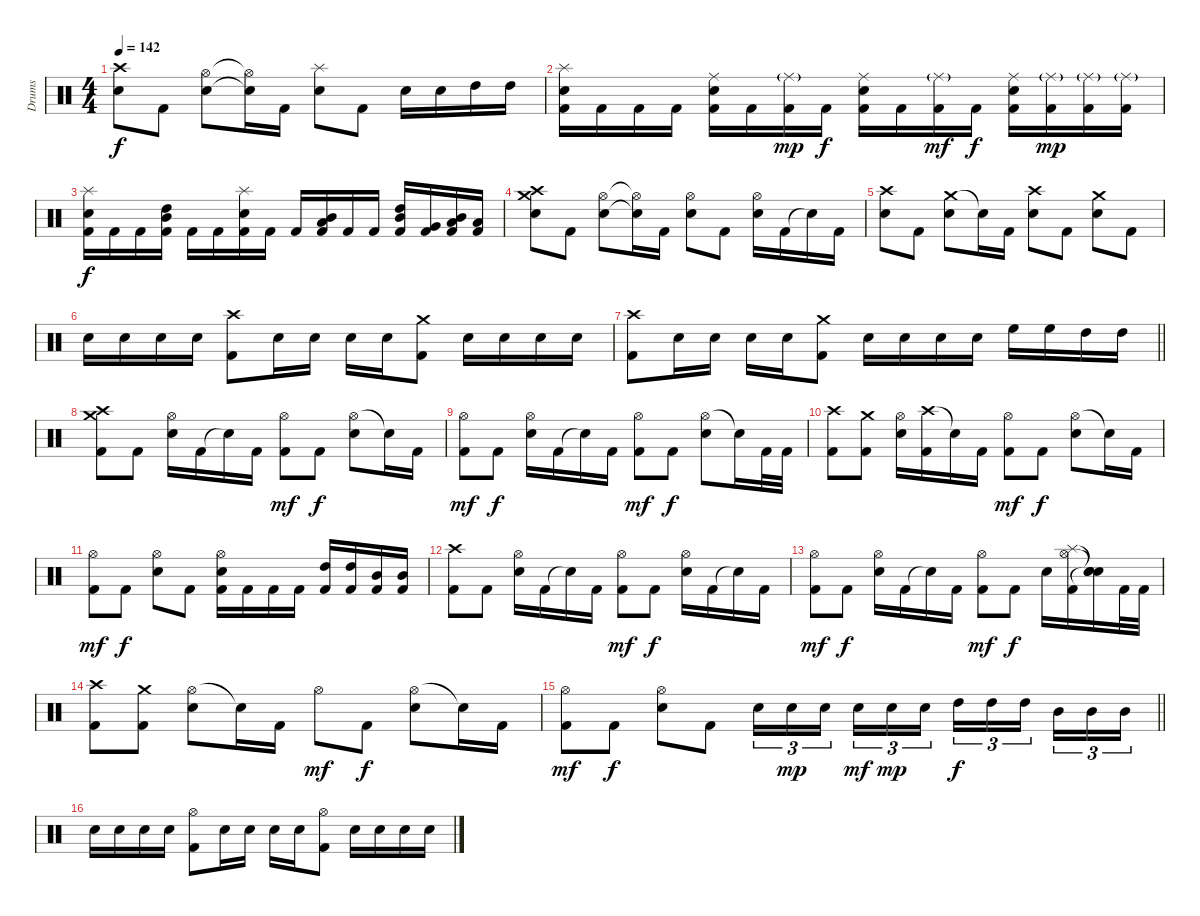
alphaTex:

\track ("Drums" "Drums") {instrument percussion}
\staff {score}
\articulation defaults
\ts (4 4)
\tempo 142
\clef neutral
\ks c
("Crash high (hit)" "Electric Snare (hit)").8{dy f} "Kick (hit) 2".8 ("Hi-Hat (open)" "Electric Snare (hit)").8 ("Hi-Hat (open)"{t} "Snare (hit)"{t}).16 "Kick (hit) 2".16 ("Splash (hit)" "Electric Snare (hit)").8 "Kick (hit) 2".8 "Electric Snare (hit)".16 "Electric Snare (hit)".16 "High Tom (hit)".16 "High Tom (hit)".16 |
("Splash (hit)" "Electric Snare (hit)" "Kick (hit) 2").16 "Kick (hit) 2".16 "Kick (hit) 2".16 "Kick (hit) 2".16 ("Ride (middle)" "Electric Snare (hit)" "Kick (hit) 2").16 "Kick (hit) 2".16 ("Ride (middle)"{g} "Kick (hit) 2").16{dy mp} "Kick (hit) 2".16{dy f} ("Ride (middle)" "Electric Snare (hit)" "Kick (hit) 2").16 "Kick (hit) 2".16 ("Ride (middle)"{g} "Kick (hit) 2").16{dy mf} "Kick (hit) 2".16{dy f} ("Ride (middle)" "Electric Snare (hit)" "Kick (hit) 2").16 ("Ride (middle)"{g} "Kick (hit) 2").16{dy mp} ("Ride (middle)"{g} "Kick (hit) 2").16 ("Ride (middle)"{g} "Kick (hit) 2").16 |
("Splash (hit)" "Electric Snare (hit)" "Kick (hit) 2").16{dy f} "Kick (hit) 2".16 "Kick (hit) 2".16 ("High Tom (hit)" "Mid Tom (hit)" "Kick (hit) 2").16 "Kick (hit) 2".16 "Kick (hit) 2".16 ("Splash (hit)" "Electric Snare (hit)" "Kick (hit) 2").16 "Kick (hit) 2".16 "Kick (hit) 2".16 ("Mid Tom (hit)" "Low Tom (hit)" "Kick (hit) 2").16 "Kick (hit) 2".16 "Kick (hit) 2".16 ("High Tom (hit)" "Mid Tom (hit)" "Kick (hit) 2").16 ("Very Low Tom (hit)" "Kick (hit) 2").16 ("Mid Tom (hit)" "Low Tom (hit)" "Kick (hit) 2").16 ("Low Floor Tom (hit)" "Kick (hit) 2").16 |
("Crash high (hit)" "Crash medium (hit)" "Electric Snare (hit)").8 "Kick (hit) 2".8 ("Hi-Hat (open)" "Electric Snare (hit)").8 ("Hi-Hat (open)"{t} "Snare (hit)"{t}).16 "Kick (hit) 2".16 ("Hi-Hat (open)" "Electric Snare (hit)").8 "Kick (hit) 2".8 ("Hi-Hat (open)" "Electric Snare (hit)").16 "Kick (hit) 2".16 "Snare (hit)"{t}.16 "Kick (hit) 2".16 |
("Crash high (hit)" "Electric Snare (hit)").8 "Kick (hit) 2".8 ("Crash medium (hit)" "Electric Snare (hit)").8 "Snare (hit)"{t}.16 "Kick (hit) 2".16 ("Crash high (hit)" "Electric Snare (hit)").8 "Kick (hit) 2".8 ("Crash medium (hit)" "Electric Snare (hit)").8 "Kick (hit) 2".8 |
"Electric Snare (hit)".16 "Electric Snare (hit)".16 "Electric Snare (hit)".16 "Electric Snare (hit)".16 ("Crash high (hit)" "Kick (hit) 2").8 "Electric Snare (hit)".16 "Electric Snare (hit)".16 "Electric Snare (hit)".16 "Electric Snare (hit)".16 ("Crash medium (hit)" "Kick (hit) 2").8 "Electric Snare (hit)".16 "Electric Snare (hit)".16 "Electric Snare (hit)".16 "Electric Snare (hit)".16 |
\barLineRight lightlight
("Crash high (hit)" "Kick (hit) 2").8 "Electric Snare (hit)".16 "Electric Snare (hit)".16 "Electric Snare (hit)".16 "Electric Snare (hit)".16 ("Crash medium (hit)" "Kick (hit) 2").8 "Electric Snare (hit)".16 "Electric Snare (hit)".16 "Electric Snare (hit)".16 "Electric Snare (hit)".16 "High Floor Tom (hit)".16 "High Floor Tom (hit)".16 "High Tom (hit)".16 "High Tom (hit)".16 |
("Crash high (hit)" "Crash medium (hit)" "Kick (hit) 2").8 "Kick (hit) 2".8 ("Hi-Hat (open)" "Electric Snare (hit)").16 "Kick (hit) 2".16 "Snare (hit)"{t}.16 "Kick (hit) 2".16 ("Hi-Hat (open)" "Kick (hit) 2").8{dy mf} "Kick (hit) 2".8{dy f} ("Hi-Hat (open)" "Electric Snare (hit)").8 "Snare (hit)"{t}.16 "Kick (hit) 2".16 |
("Hi-Hat (open)" "Kick (hit) 2").8{dy mf} "Kick (hit) 2".8{dy f} ("Hi-Hat (open)" "Electric Snare (hit)").16 "Kick (hit) 2".16 "Snare (hit)"{t}.16 "Kick (hit) 2".16 ("Hi-Hat (open)" "Kick (hit) 2").8{dy mf} "Kick (hit) 2".8{dy f} ("Hi-Hat (open)" "Electric Snare (hit)").8 "Snare (hit)"{t}.16 "Kick (hit) 2".32 "Kick (hit) 2".32 |
("Crash high (hit)" "Kick (hit) 2").8 ("Crash medium (hit)" "Kick (hit) 2").8 ("Hi-Hat (open)" "Electric Snare (hit)").16 ("Crash high (hit)" "Kick (hit) 2").16 "Snare (hit)"{t}.16 "Kick (hit) 2".16 ("Hi-Hat (open)" "Kick (hit) 2").8{dy mf} "Kick (hit) 2".8{dy f} ("Hi-Hat (open)" "Electric Snare (hit)").8 "Snare (hit)"{t}.16 "Kick (hit) 2".16 |
("Hi-Hat (open)" "Kick (hit) 2").8{dy mf} "Kick (hit) 2".8{dy f} ("Hi-Hat (open)" "Electric Snare (hit)").8 "Kick (hit) 2".8 ("Hi-Hat (open)" "Electric Snare (hit)" "Kick (hit) 2").16 "Kick (hit) 2".16 "Kick (hit) 2".16 "Kick (hit) 2".16 ("High Tom (hit)" "Kick (hit) 2").16 ("High Tom (hit)" "Kick (hit) 2").16 ("Mid Tom (hit)" "Kick (hit) 2").16 ("Mid Tom (hit)" "Kick (hit) 2").16 |
("Crash high (hit)" "Kick (hit) 2").8 "Kick (hit) 2".8 ("Hi-Hat (open)" "Electric Snare (hit)").16 "Kick (hit) 2".16 "Snare (hit)"{t}.16 "Kick (hit) 2".16 ("Hi-Hat (open)" "Kick (hit) 2").8{dy mf} "Kick (hit) 2".8{dy f} ("Hi-Hat (open)" "Electric Snare (hit)").16 "Kick (hit) 2".16 "Snare (hit)"{t}.16 "Kick (hit) 2".16 |
("Hi-Hat (open)" "Kick (hit) 2").8{dy mf} "Kick (hit) 2".8{dy f} ("Hi-Hat (open)" "Electric Snare (hit)").16 "Kick (hit) 2".16 "Snare (hit)"{t}.16 "Kick (hit) 2".16 ("Hi-Hat (open)" "Kick (hit) 2").8{dy mf} "Kick (hit) 2".8{dy f} "Electric Snare (hit)".16 ("Splash (hit)" "Hi-Hat (open)" "Kick (hit) 2").16 ("Snare (hit)"{t} "Snare (hit)"{t} "Snare (hit)"{t}).16 "Kick (hit) 2".32 "Kick (hit) 2".32 |
("Crash high (hit)" "Kick (hit) 2").8 ("Crash medium (hit)" "Kick (hit) 2").8 ("Hi-Hat (open)" "Electric Snare (hit)").8 "Snare (hit)"{t}.16 "Kick (hit) 2".16 "Hi-Hat (open)".8{dy mf} "Kick (hit) 2".8{dy f} ("Hi-Hat (open)" "Electric Snare (hit)").8 "Snare (hit)"{t}.16 "Kick (hit) 2".16 |
\barLineRight lightlight
("Hi-Hat (open)" "Kick (hit) 2").8{dy mf} "Kick (hit) 2".8{dy f} ("Hi-Hat (open)" "Electric Snare (hit)").8 "Kick (hit) 2".8 "Electric Snare (hit)".16{tu (3 2)} "Electric Snare (hit)".16{tu (3 2) dy mp} "Electric Snare (hit)".16{tu (3 2)} "Electric Snare (hit)".16{tu (3 2) dy mf} "Electric Snare (hit)".16{tu (3 2) dy mp} "Electric Snare (hit)".16{tu (3 2)} "High Tom (hit)".16{tu (3 2) dy f} "High Tom (hit)".16{tu (3 2)} "High Tom (hit)".16{tu (3 2)} "Mid Tom (hit)".16{tu (3 2)} "Mid Tom (hit)".16{tu (3 2)} "Mid Tom (hit)".16{tu (3 2)} |
"Electric Snare (hit)".16 "Electric Snare (hit)".16 "Electric Snare (hit)".16 "Electric Snare (hit)".16 ("Hi-Hat (open)" "Kick (hit) 2").8 "Electric Snare (hit)".16 "Electric Snare (hit)".16 "Electric Snare (hit)".16 "Electric Snare (hit)".16 ("Hi-Hat (open)" "Kick (hit) 2").8 "Electric Snare (hit)".16 "Electric Snare (hit)".16 "Electric Snare (hit)".16 "Electric Snare (hit)".16
